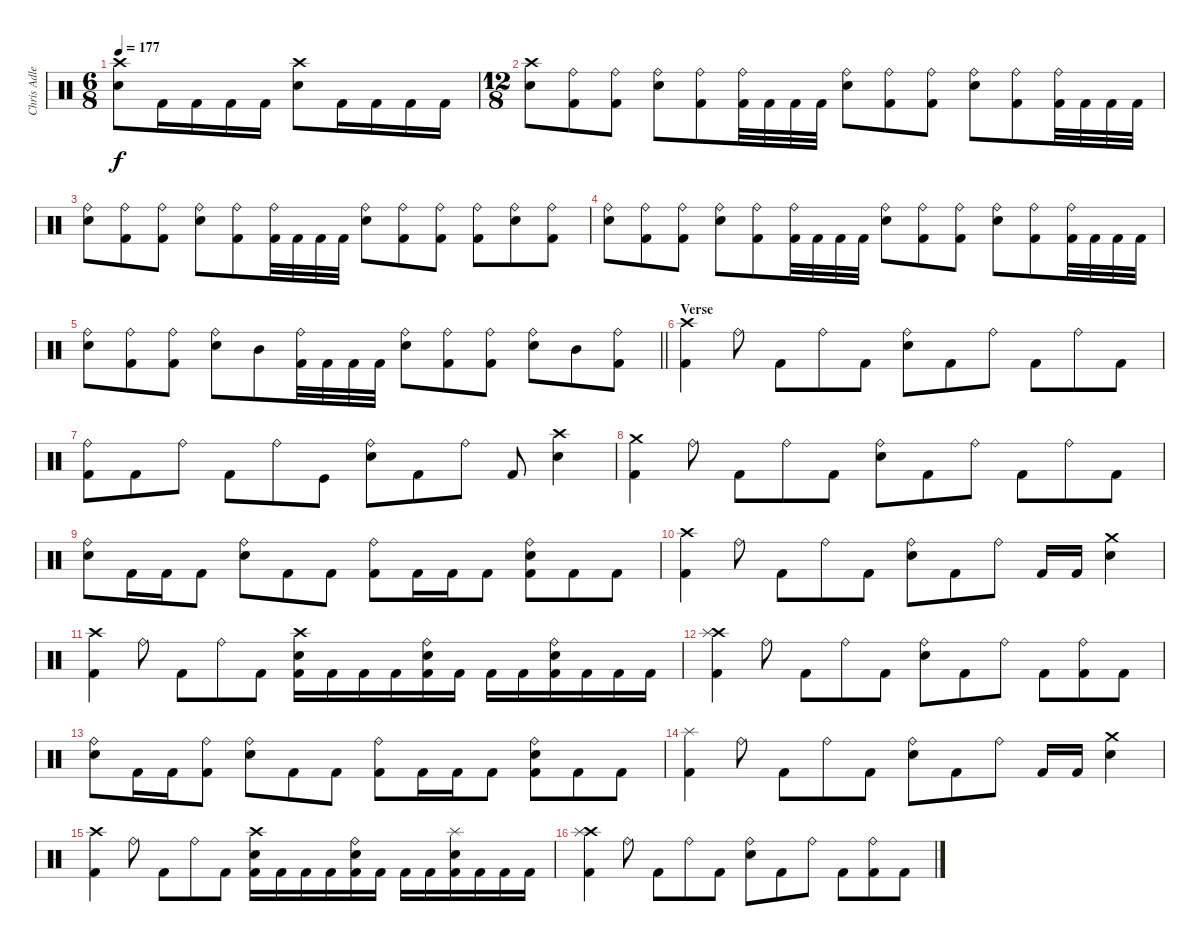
\track ("Chris Adler" "Chris Adle") {instrument percussion}
\staff {score}
\articulation defaults
\ts (6 8)
\tempo 177
\clef neutral
\ks c
("Crash high (hit)" "Snare (hit) 2").8{dy f} "Kick (hit) 2".16 "Kick (hit) 2".16 "Kick (hit) 2".16 "Kick (hit) 2".16 ("Crash high (hit)" "Snare (hit) 2").8 "Kick (hit) 2".16 "Kick (hit) 2".16 "Kick (hit) 2".16 "Kick (hit) 2".16 |
\ts (12 8)
("Crash high (hit)" "Snare (hit) 2").8 ("Ride (bell)" "Kick (hit) 2").8 ("Ride (bell)" "Kick (hit) 2").8 ("Ride (bell)" "Snare (hit) 2").8 ("Ride (bell)" "Kick (hit) 2").8 ("Ride (bell)" "Kick (hit) 2").32 "Kick (hit) 2".32 "Kick (hit) 2".32 "Kick (hit) 2".32 ("Ride (bell)" "Snare (hit) 2").8 ("Ride (bell)" "Kick (hit) 2").8 ("Ride (bell)" "Kick (hit) 2").8 ("Ride (bell)" "Snare (hit) 2").8 ("Ride (bell)" "Kick (hit) 2").8 ("Ride (bell)" "Kick (hit) 2").32 "Kick (hit) 2".32 "Kick (hit) 2".32 "Kick (hit) 2".32 |
("Ride (bell)" "Snare (hit) 2").8 ("Ride (bell)" "Kick (hit) 2").8 ("Ride (bell)" "Kick (hit) 2").8 ("Ride (bell)" "Snare (hit) 2").8 ("Ride (bell)" "Kick (hit) 2").8 ("Ride (bell)" "Kick (hit) 2").32 "Kick (hit) 2".32 "Kick (hit) 2".32 "Kick (hit) 2".32 ("Ride (bell)" "Snare (hit) 2").8 ("Ride (bell)" "Kick (hit) 2").8 ("Ride (bell)" "Kick (hit) 2").8 ("Ride (bell)" "Kick (hit) 2").8 ("Ride (bell)" "Snare (hit) 2").8 ("Ride (bell)" "Kick (hit) 2").8 |
("Ride (bell)" "Snare (hit) 2").8 ("Ride (bell)" "Kick (hit) 2").8 ("Ride (bell)" "Kick (hit) 2").8 ("Ride (bell)" "Snare (hit) 2").8 ("Ride (bell)" "Kick (hit) 2").8 ("Ride (bell)" "Kick (hit) 2").32 "Kick (hit) 2".32 "Kick (hit) 2".32 "Kick (hit) 2".32 ("Ride (bell)" "Snare (hit) 2").8 ("Ride (bell)" "Kick (hit) 2").8 ("Ride (bell)" "Kick (hit) 2").8 ("Ride (bell)" "Snare (hit) 2").8 ("Ride (bell)" "Kick (hit) 2").8 ("Ride (bell)" "Kick (hit) 2").32 "Kick (hit) 2".32 "Kick (hit) 2".32 "Kick (hit) 2".32 |
\barLineRight lightlight
("Ride (bell)" "Snare (hit) 2").8 ("Ride (bell)" "Kick (hit) 2").8 ("Ride (bell)" "Kick (hit) 2").8 ("Ride (bell)" "Snare (hit) 2").8 "Mid Tom (hit)".8 ("Ride (bell)" "Kick (hit) 2").32 "Kick (hit) 2".32 "Kick (hit) 2".32 "Kick (hit) 2".32 ("Ride (bell)" "Snare (hit) 2").8 ("Ride (bell)" "Kick (hit) 2").8 ("Ride (bell)" "Kick (hit) 2").8 ("Ride (bell)" "Snare (hit) 2").8 "Mid Tom (hit)".8 ("Ride (bell)" "Kick (hit) 2").8 |
\section ("" "Verse")
("Crash high (hit)" "Kick (hit) 2").4 "Ride (bell)".8 "Kick (hit) 2".8 "Ride (bell)".8 "Kick (hit) 2".8 ("Ride (bell)" "Snare (hit) 2").8 "Kick (hit) 2".8 "Ride (bell)".8 "Kick (hit) 2".8 "Ride (bell)".8 "Kick (hit) 2".8 |
("Ride (bell)" "Kick (hit) 2").8 "Kick (hit) 2".8 "Ride (bell)".8 "Kick (hit) 2".8 "Ride (bell)".8 "Kick (hit)".8 ("Ride (bell)" "Snare (hit) 2").8 "Kick (hit) 2".8 "Ride (bell)".8 "Kick (hit) 2".8 ("Crash high (hit)" "Snare (hit) 2").4 |
("Crash medium (hit)" "Kick (hit) 2").4 "Ride (bell)".8 "Kick (hit) 2".8 "Ride (bell)".8 "Kick (hit) 2".8 ("Ride (bell)" "Snare (hit) 2").8 "Kick (hit) 2".8 "Ride (bell)".8 "Kick (hit) 2".8 "Ride (bell)".8 "Kick (hit) 2".8 |
("Ride (bell)" "Snare (hit) 2").8 "Kick (hit) 2".16 "Kick (hit) 2".16 "Kick (hit) 2".8 ("Ride (bell)" "Snare (hit) 2").8 "Kick (hit) 2".8 "Kick (hit) 2".8 ("Ride (bell)" "Kick (hit) 2").8 "Kick (hit) 2".16 "Kick (hit) 2".16 "Kick (hit) 2".8 ("Ride (bell)" "Snare (hit) 2" "Kick (hit) 2").8 "Kick (hit) 2".8 "Kick (hit) 2".8 |
("Crash high (hit)" "Kick (hit) 2").4 "Ride (bell)".8 "Kick (hit) 2".8 "Ride (bell)".8 "Kick (hit) 2".8 ("Ride (bell)" "Snare (hit) 2").8 "Kick (hit) 2".8 "Ride (bell)".8 "Kick (hit) 2".16 "Kick (hit) 2".16 ("Crash medium (hit)" "Electric Snare (hit)").4 |
("Crash high (hit)" "Kick (hit) 2").4 "Ride (bell)".8 "Kick (hit) 2".8 "Ride (bell)".8 "Kick (hit) 2".8 ("Snare (hit) 2" "Crash high (hit)" "Kick (hit) 2").16 "Kick (hit) 2".16 "Kick (hit) 2".16 "Kick (hit) 2".16 ("Snare (hit) 2" "Ride (bell)" "Kick (hit) 2").16 "Kick (hit) 2".16 "Kick (hit) 2".16 "Kick (hit) 2".16 ("Snare (hit) 2" "Ride (bell)" "Kick (hit) 2").16 "Kick (hit) 2".16 "Kick (hit) 2".16 "Kick (hit) 2".16 |
("Crash high (hit)" "Splash (hit)" "Kick (hit) 2").4 "Ride (bell)".8 "Kick (hit) 2".8 "Ride (bell)".8 "Kick (hit) 2".8 ("Ride (bell)" "Snare (hit) 2").8 "Kick (hit) 2".8 "Ride (bell)".8 "Kick (hit) 2".8 ("Ride (bell)" "Kick (hit) 2").8 "Kick (hit) 2".8 |
("Ride (bell)" "Snare (hit) 2").8 "Kick (hit) 2".16 "Kick (hit) 2".16 ("Ride (bell)" "Kick (hit) 2").8 ("Ride (bell)" "Snare (hit) 2").8 "Kick (hit) 2".8 "Kick (hit) 2".8 ("Ride (bell)" "Kick (hit) 2").8 "Kick (hit) 2".16 "Kick (hit) 2".16 "Kick (hit) 2".8 ("Ride (bell)" "Snare (hit) 2" "Kick (hit) 2").8 "Kick (hit) 2".8 "Kick (hit) 2".8 |
("Splash (hit)" "Kick (hit) 2").4 "Ride (bell)".8 "Kick (hit) 2".8 "Ride (bell)".8 "Kick (hit) 2".8 ("Ride (bell)" "Snare (hit) 2").8 "Kick (hit) 2".8 "Ride (bell)".8 "Kick (hit) 2".16 "Kick (hit) 2".16 ("Crash medium (hit)" "Snare (hit) 2").4 |
("Crash high (hit)" "Kick (hit) 2").4 "Ride (bell)".8 "Kick (hit) 2".8 "Ride (bell)".8 "Kick (hit) 2".8 ("Snare (hit) 2" "Crash high (hit)" "Kick (hit) 2").16 "Kick (hit) 2".16 "Kick (hit) 2".16 "Kick (hit) 2".16 ("Snare (hit) 2" "Ride (bell)" "Kick (hit) 2").16 "Kick (hit) 2".16 "Kick (hit) 2".16 "Kick (hit) 2".16 ("Snare (hit) 2" "Splash (hit)" "Kick (hit) 2").16 "Kick (hit) 2".16 "Kick (hit) 2".16 "Kick (hit) 2".16 |
("Crash high (hit)" "Splash (hit)" "Kick (hit) 2").4 "Ride (bell)".8 "Kick (hit) 2".8 "Ride (bell)".8 "Kick (hit) 2".8 ("Ride (bell)" "Snare (hit) 2").8 "Kick (hit) 2".8 "Ride (bell)".8 "Kick (hit) 2".8 ("Ride (bell)" "Kick (hit) 2").8 "Kick (hit) 2".8
